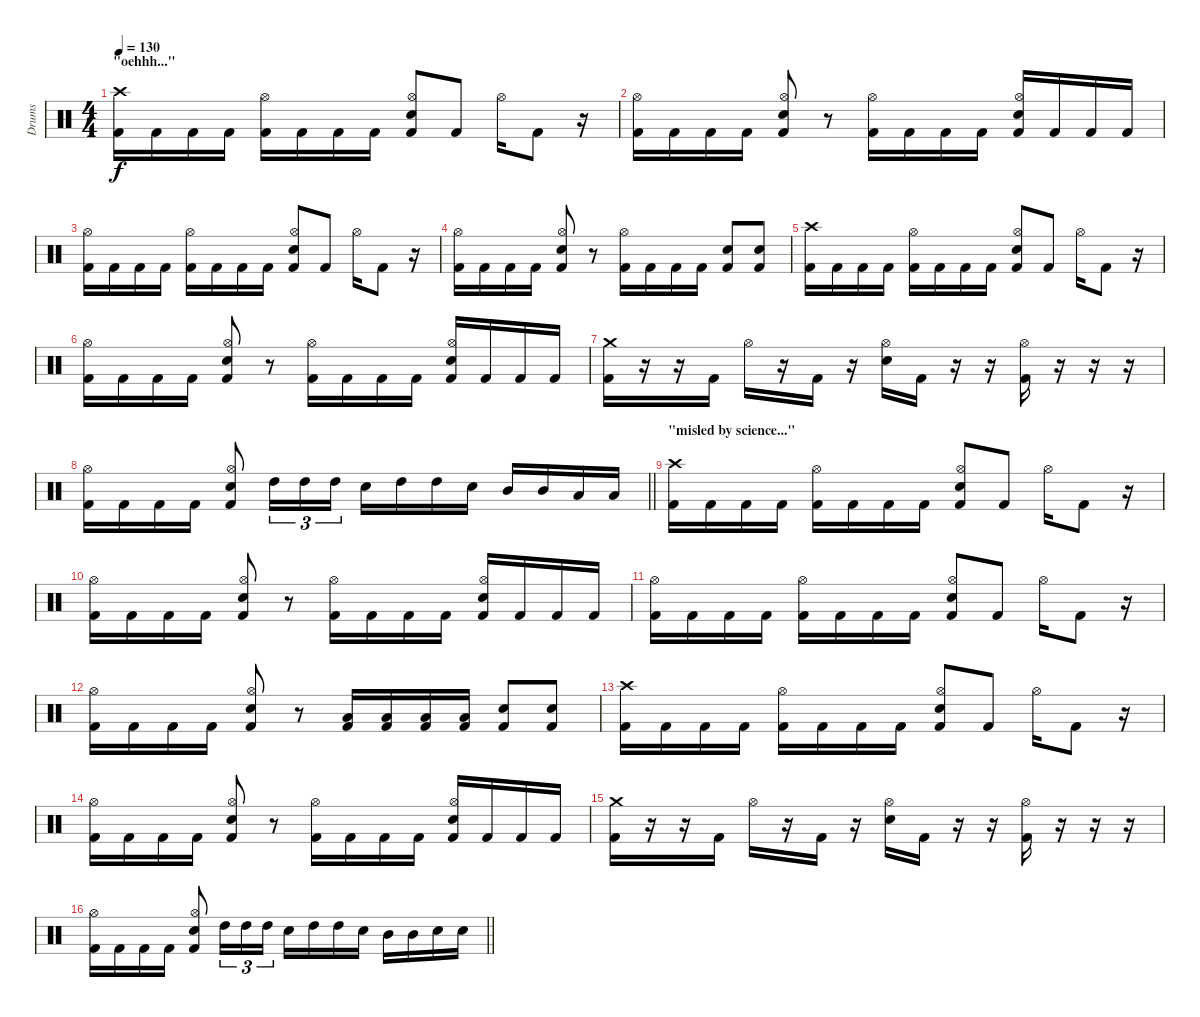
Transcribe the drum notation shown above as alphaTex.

\track ("Drums" "Drums") {instrument percussion}
\staff {score}
\articulation defaults
\ts (4 4)
\section ("" "\"oehhh...\"")
\tempo 130
\clef neutral
\ks c
("Crash high (hit)" "Kick (hit) 2").16{dy f} "Kick (hit) 2".16 "Kick (hit) 2".16 "Kick (hit) 2".16 ("Hi-Hat (open)" "Kick (hit) 2").16 "Kick (hit) 2".16 "Kick (hit) 2".16 "Kick (hit) 2".16 ("Hi-Hat (open)" "Snare (hit) 2" "Kick (hit) 2").8 "Kick (hit) 2".8 "Hi-Hat (open)".16 "Kick (hit) 2".8 r.16 |
("Hi-Hat (open)" "Kick (hit) 2").16 "Kick (hit) 2".16 "Kick (hit) 2".16 "Kick (hit) 2".16 ("Hi-Hat (open)" "Snare (hit) 2" "Kick (hit) 2").8 r.8 ("Hi-Hat (open)" "Kick (hit) 2").16 "Kick (hit) 2".16 "Kick (hit) 2".16 "Kick (hit) 2".16 ("Hi-Hat (open)" "Snare (hit) 2" "Kick (hit) 2").16 "Kick (hit) 2".16 "Kick (hit) 2".16 "Kick (hit) 2".16 |
("Hi-Hat (open)" "Kick (hit) 2").16 "Kick (hit) 2".16 "Kick (hit) 2".16 "Kick (hit) 2".16 ("Hi-Hat (open)" "Kick (hit) 2").16 "Kick (hit) 2".16 "Kick (hit) 2".16 "Kick (hit) 2".16 ("Hi-Hat (open)" "Snare (hit) 2" "Kick (hit) 2").8 "Kick (hit) 2".8 "Hi-Hat (open)".16 "Kick (hit) 2".8 r.16 |
("Hi-Hat (open)" "Kick (hit) 2").16 "Kick (hit) 2".16 "Kick (hit) 2".16 "Kick (hit) 2".16 ("Hi-Hat (open)" "Snare (hit) 2" "Kick (hit) 2").8 r.8 ("Hi-Hat (open)" "Kick (hit) 2").16 "Kick (hit) 2".16 "Kick (hit) 2".16 "Kick (hit) 2".16 ("Snare (hit) 2" "Kick (hit) 2").8 ("Snare (hit) 2" "Kick (hit) 2").8 |
("Crash high (hit)" "Kick (hit) 2").16 "Kick (hit) 2".16 "Kick (hit) 2".16 "Kick (hit) 2".16 ("Hi-Hat (open)" "Kick (hit) 2").16 "Kick (hit) 2".16 "Kick (hit) 2".16 "Kick (hit) 2".16 ("Hi-Hat (open)" "Snare (hit) 2" "Kick (hit) 2").8 "Kick (hit) 2".8 "Hi-Hat (open)".16 "Kick (hit) 2".8 r.16 |
("Hi-Hat (open)" "Kick (hit) 2").16 "Kick (hit) 2".16 "Kick (hit) 2".16 "Kick (hit) 2".16 ("Hi-Hat (open)" "Snare (hit) 2" "Kick (hit) 2").8 r.8 ("Hi-Hat (open)" "Kick (hit) 2").16 "Kick (hit) 2".16 "Kick (hit) 2".16 "Kick (hit) 2".16 ("Hi-Hat (open)" "Snare (hit) 2" "Kick (hit) 2").16 "Kick (hit) 2".16 "Kick (hit) 2".16 "Kick (hit) 2".16 |
("Crash medium (hit)" "Kick (hit) 2").16 r.16 r.16 "Kick (hit) 2".16 "Hi-Hat (open)".16 r.16 "Kick (hit) 2".16 r.16 ("Hi-Hat (open)" "Snare (hit) 2").16 "Kick (hit) 2".16 r.16 r.16 ("Hi-Hat (open)" "Kick (hit) 2").16 r.16 r.16 r.16 |
\barLineRight lightlight
("Hi-Hat (open)" "Kick (hit) 2").16 "Kick (hit) 2".16 "Kick (hit) 2".16 "Kick (hit) 2".16 ("Hi-Hat (open)" "Snare (hit) 2" "Kick (hit) 2").8 "High Tom (hit)".16{tu (3 2)} "High Tom (hit)".16{tu (3 2)} "High Tom (hit)".16{tu (3 2)} "Snare (hit) 2".16 "High Tom (hit)".16 "High Tom (hit)".16 "Snare (hit) 2".16 "Mid Tom (hit)".16 "Mid Tom (hit)".16 "Low Tom (hit)".16 "Low Tom (hit)".16 |
\section ("" "\"misled by science...\"")
("Crash high (hit)" "Kick (hit) 2").16 "Kick (hit) 2".16 "Kick (hit) 2".16 "Kick (hit) 2".16 ("Hi-Hat (open)" "Kick (hit) 2").16 "Kick (hit) 2".16 "Kick (hit) 2".16 "Kick (hit) 2".16 ("Hi-Hat (open)" "Snare (hit) 2" "Kick (hit) 2").8 "Kick (hit) 2".8 "Hi-Hat (open)".16 "Kick (hit) 2".8 r.16 |
("Hi-Hat (open)" "Kick (hit) 2").16 "Kick (hit) 2".16 "Kick (hit) 2".16 "Kick (hit) 2".16 ("Hi-Hat (open)" "Snare (hit) 2" "Kick (hit) 2").8 r.8 ("Hi-Hat (open)" "Kick (hit) 2").16 "Kick (hit) 2".16 "Kick (hit) 2".16 "Kick (hit) 2".16 ("Hi-Hat (open)" "Snare (hit) 2" "Kick (hit) 2").16 "Kick (hit) 2".16 "Kick (hit) 2".16 "Kick (hit) 2".16 |
("Hi-Hat (open)" "Kick (hit) 2").16 "Kick (hit) 2".16 "Kick (hit) 2".16 "Kick (hit) 2".16 ("Hi-Hat (open)" "Kick (hit) 2").16 "Kick (hit) 2".16 "Kick (hit) 2".16 "Kick (hit) 2".16 ("Hi-Hat (open)" "Snare (hit) 2" "Kick (hit) 2").8 "Kick (hit) 2".8 "Hi-Hat (open)".16 "Kick (hit) 2".8 r.16 |
("Hi-Hat (open)" "Kick (hit) 2").16 "Kick (hit) 2".16 "Kick (hit) 2".16 "Kick (hit) 2".16 ("Hi-Hat (open)" "Snare (hit) 2" "Kick (hit) 2").8 r.8 ("Low Tom (hit)" "Kick (hit) 2").16 ("Low Tom (hit)" "Kick (hit) 2").16 ("Low Tom (hit)" "Kick (hit) 2").16 ("Low Tom (hit)" "Kick (hit) 2").16 ("Snare (hit) 2" "Kick (hit) 2").8 ("Snare (hit) 2" "Kick (hit) 2").8 |
("Crash high (hit)" "Kick (hit) 2").16 "Kick (hit) 2".16 "Kick (hit) 2".16 "Kick (hit) 2".16 ("Hi-Hat (open)" "Kick (hit) 2").16 "Kick (hit) 2".16 "Kick (hit) 2".16 "Kick (hit) 2".16 ("Hi-Hat (open)" "Snare (hit) 2" "Kick (hit) 2").8 "Kick (hit) 2".8 "Hi-Hat (open)".16 "Kick (hit) 2".8 r.16 |
("Hi-Hat (open)" "Kick (hit) 2").16 "Kick (hit) 2".16 "Kick (hit) 2".16 "Kick (hit) 2".16 ("Hi-Hat (open)" "Snare (hit) 2" "Kick (hit) 2").8 r.8 ("Hi-Hat (open)" "Kick (hit) 2").16 "Kick (hit) 2".16 "Kick (hit) 2".16 "Kick (hit) 2".16 ("Hi-Hat (open)" "Snare (hit) 2" "Kick (hit) 2").16 "Kick (hit) 2".16 "Kick (hit) 2".16 "Kick (hit) 2".16 |
("Crash medium (hit)" "Kick (hit) 2").16 r.16 r.16 "Kick (hit) 2".16 "Hi-Hat (open)".16 r.16 "Kick (hit) 2".16 r.16 ("Hi-Hat (open)" "Snare (hit) 2").16 "Kick (hit) 2".16 r.16 r.16 ("Hi-Hat (open)" "Kick (hit) 2").16 r.16 r.16 r.16 |
\barLineRight lightlight
("Hi-Hat (open)" "Kick (hit) 2").16 "Kick (hit) 2".16 "Kick (hit) 2".16 "Kick (hit) 2".16 ("Hi-Hat (open)" "Snare (hit) 2" "Kick (hit) 2").8 "High Tom (hit)".16{tu (3 2)} "High Tom (hit)".16{tu (3 2)} "High Tom (hit)".16{tu (3 2)} "Snare (hit) 2".16 "High Tom (hit)".16 "High Tom (hit)".16 "Snare (hit) 2".16 "Mid Tom (hit)".16 "Mid Tom (hit)".16 "Snare (hit) 2".16 "Snare (hit) 2".16
